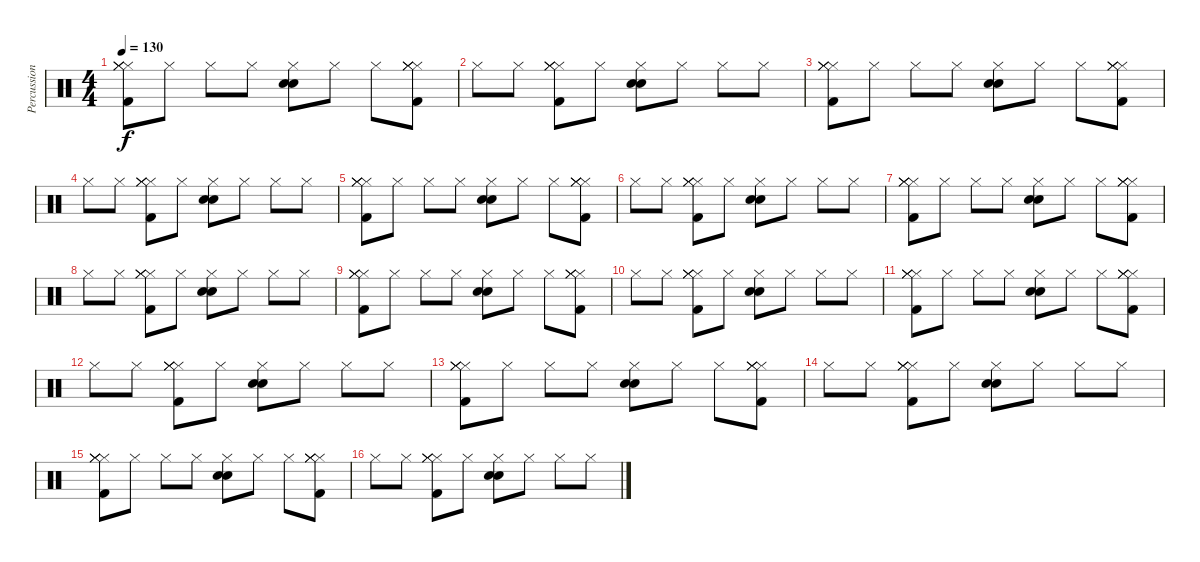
\track ("Percussion" "Percussion") {instrument percussion}
\staff {score}
\articulation defaults
\ts (4 4)
\tempo 130
\clef neutral
\ks c
("Hi-Hat (closed)" "Hi-Hat (closed)" "Kick (hit) 2" "Hi-Hat (closed)" "Hi-Hat (closed)").8{dy f} "Hi-Hat (closed)".8 "Hi-Hat (closed)".8 "Hi-Hat (closed)".8 ("Hi-Hat (closed)" "Snare (hit) 2" "Snare (hit) 2").8 "Hi-Hat (closed)".8 "Hi-Hat (closed)".8 ("Hi-Hat (closed)" "Kick (hit) 2" "Hi-Hat (closed)" "Hi-Hat (closed)" "Hi-Hat (closed)").8 |
"Hi-Hat (closed)".8 "Hi-Hat (closed)".8 ("Hi-Hat (closed)" "Kick (hit) 2" "Hi-Hat (closed)" "Hi-Hat (closed)" "Hi-Hat (closed)").8 "Hi-Hat (closed)".8 ("Hi-Hat (closed)" "Snare (hit) 2" "Snare (hit) 2").8 "Hi-Hat (closed)".8 "Hi-Hat (closed)".8 "Hi-Hat (closed)".8 |
("Hi-Hat (closed)" "Hi-Hat (closed)" "Kick (hit) 2" "Hi-Hat (closed)" "Hi-Hat (closed)").8 "Hi-Hat (closed)".8 "Hi-Hat (closed)".8 "Hi-Hat (closed)".8 ("Hi-Hat (closed)" "Snare (hit) 2" "Snare (hit) 2").8 "Hi-Hat (closed)".8 "Hi-Hat (closed)".8 ("Hi-Hat (closed)" "Kick (hit) 2" "Hi-Hat (closed)" "Hi-Hat (closed)" "Hi-Hat (closed)").8 |
"Hi-Hat (closed)".8 "Hi-Hat (closed)".8 ("Hi-Hat (closed)" "Kick (hit) 2" "Hi-Hat (closed)" "Hi-Hat (closed)" "Hi-Hat (closed)").8 "Hi-Hat (closed)".8 ("Hi-Hat (closed)" "Snare (hit) 2" "Snare (hit) 2").8 "Hi-Hat (closed)".8 "Hi-Hat (closed)".8 "Hi-Hat (closed)".8 |
("Hi-Hat (closed)" "Hi-Hat (closed)" "Kick (hit) 2" "Hi-Hat (closed)" "Hi-Hat (closed)").8 "Hi-Hat (closed)".8 "Hi-Hat (closed)".8 "Hi-Hat (closed)".8 ("Hi-Hat (closed)" "Snare (hit) 2" "Snare (hit) 2").8 "Hi-Hat (closed)".8 "Hi-Hat (closed)".8 ("Hi-Hat (closed)" "Kick (hit) 2" "Hi-Hat (closed)" "Hi-Hat (closed)" "Hi-Hat (closed)").8 |
"Hi-Hat (closed)".8 "Hi-Hat (closed)".8 ("Hi-Hat (closed)" "Kick (hit) 2" "Hi-Hat (closed)" "Hi-Hat (closed)" "Hi-Hat (closed)").8 "Hi-Hat (closed)".8 ("Hi-Hat (closed)" "Snare (hit) 2" "Snare (hit) 2").8 "Hi-Hat (closed)".8 "Hi-Hat (closed)".8 "Hi-Hat (closed)".8 |
("Hi-Hat (closed)" "Hi-Hat (closed)" "Kick (hit) 2" "Hi-Hat (closed)" "Hi-Hat (closed)").8 "Hi-Hat (closed)".8 "Hi-Hat (closed)".8 "Hi-Hat (closed)".8 ("Hi-Hat (closed)" "Snare (hit) 2" "Snare (hit) 2").8 "Hi-Hat (closed)".8 "Hi-Hat (closed)".8 ("Hi-Hat (closed)" "Kick (hit) 2" "Hi-Hat (closed)" "Hi-Hat (closed)" "Hi-Hat (closed)").8 |
"Hi-Hat (closed)".8 "Hi-Hat (closed)".8 ("Hi-Hat (closed)" "Kick (hit) 2" "Hi-Hat (closed)" "Hi-Hat (closed)" "Hi-Hat (closed)").8 "Hi-Hat (closed)".8 ("Hi-Hat (closed)" "Snare (hit) 2" "Snare (hit) 2").8 "Hi-Hat (closed)".8 "Hi-Hat (closed)".8 "Hi-Hat (closed)".8 |
("Hi-Hat (closed)" "Hi-Hat (closed)" "Kick (hit) 2" "Hi-Hat (closed)" "Hi-Hat (closed)").8 "Hi-Hat (closed)".8 "Hi-Hat (closed)".8 "Hi-Hat (closed)".8 ("Hi-Hat (closed)" "Snare (hit) 2" "Snare (hit) 2").8 "Hi-Hat (closed)".8 "Hi-Hat (closed)".8 ("Hi-Hat (closed)" "Kick (hit) 2" "Hi-Hat (closed)" "Hi-Hat (closed)" "Hi-Hat (closed)").8 |
"Hi-Hat (closed)".8 "Hi-Hat (closed)".8 ("Hi-Hat (closed)" "Kick (hit) 2" "Hi-Hat (closed)" "Hi-Hat (closed)" "Hi-Hat (closed)").8 "Hi-Hat (closed)".8 ("Hi-Hat (closed)" "Snare (hit) 2" "Snare (hit) 2").8 "Hi-Hat (closed)".8 "Hi-Hat (closed)".8 "Hi-Hat (closed)".8 |
("Hi-Hat (closed)" "Hi-Hat (closed)" "Kick (hit) 2" "Hi-Hat (closed)" "Hi-Hat (closed)").8 "Hi-Hat (closed)".8 "Hi-Hat (closed)".8 "Hi-Hat (closed)".8 ("Hi-Hat (closed)" "Snare (hit) 2" "Snare (hit) 2").8 "Hi-Hat (closed)".8 "Hi-Hat (closed)".8 ("Hi-Hat (closed)" "Kick (hit) 2" "Hi-Hat (closed)" "Hi-Hat (closed)" "Hi-Hat (closed)").8 |
"Hi-Hat (closed)".8 "Hi-Hat (closed)".8 ("Hi-Hat (closed)" "Kick (hit) 2" "Hi-Hat (closed)" "Hi-Hat (closed)" "Hi-Hat (closed)").8 "Hi-Hat (closed)".8 ("Hi-Hat (closed)" "Snare (hit) 2" "Snare (hit) 2").8 "Hi-Hat (closed)".8 "Hi-Hat (closed)".8 "Hi-Hat (closed)".8 |
("Hi-Hat (closed)" "Hi-Hat (closed)" "Kick (hit) 2" "Hi-Hat (closed)" "Hi-Hat (closed)").8 "Hi-Hat (closed)".8 "Hi-Hat (closed)".8 "Hi-Hat (closed)".8 ("Hi-Hat (closed)" "Snare (hit) 2" "Snare (hit) 2").8 "Hi-Hat (closed)".8 "Hi-Hat (closed)".8 ("Hi-Hat (closed)" "Kick (hit) 2" "Hi-Hat (closed)" "Hi-Hat (closed)" "Hi-Hat (closed)").8 |
"Hi-Hat (closed)".8 "Hi-Hat (closed)".8 ("Hi-Hat (closed)" "Kick (hit) 2" "Hi-Hat (closed)" "Hi-Hat (closed)" "Hi-Hat (closed)").8 "Hi-Hat (closed)".8 ("Hi-Hat (closed)" "Snare (hit) 2" "Snare (hit) 2").8 "Hi-Hat (closed)".8 "Hi-Hat (closed)".8 "Hi-Hat (closed)".8 |
("Hi-Hat (closed)" "Hi-Hat (closed)" "Kick (hit) 2" "Hi-Hat (closed)" "Hi-Hat (closed)").8 "Hi-Hat (closed)".8 "Hi-Hat (closed)".8 "Hi-Hat (closed)".8 ("Hi-Hat (closed)" "Snare (hit) 2" "Snare (hit) 2").8 "Hi-Hat (closed)".8 "Hi-Hat (closed)".8 ("Hi-Hat (closed)" "Kick (hit) 2" "Hi-Hat (closed)" "Hi-Hat (closed)" "Hi-Hat (closed)").8 |
"Hi-Hat (closed)".8 "Hi-Hat (closed)".8 ("Hi-Hat (closed)" "Kick (hit) 2" "Hi-Hat (closed)" "Hi-Hat (closed)" "Hi-Hat (closed)").8 "Hi-Hat (closed)".8 ("Hi-Hat (closed)" "Snare (hit) 2" "Snare (hit) 2").8 "Hi-Hat (closed)".8 "Hi-Hat (closed)".8 "Hi-Hat (closed)".8
